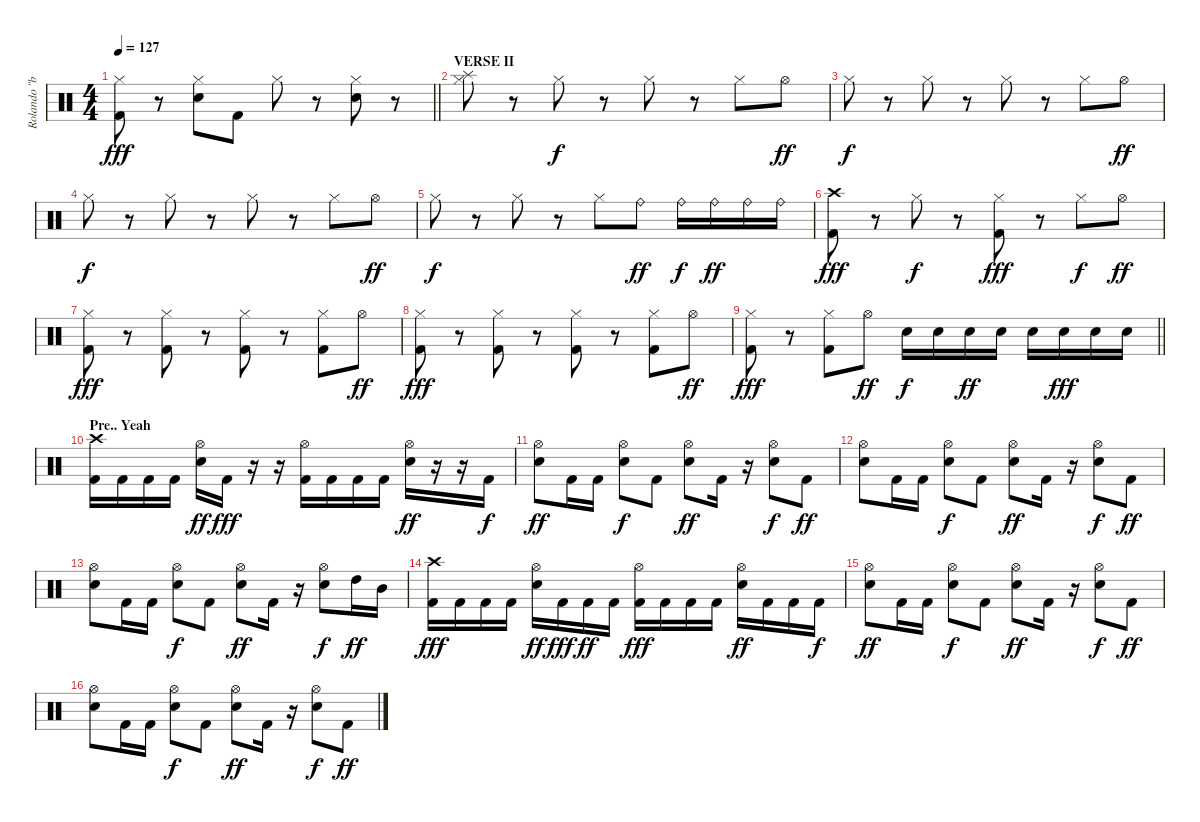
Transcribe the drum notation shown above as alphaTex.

\track ("Rolando \"bataka\"" "Rolando \"b") {instrument percussion}
\staff {score}
\articulation defaults
\ts (4 4)
\tempo 127
\clef neutral
\barLineRight lightlight
\ks c
("Kick (hit) 2" "Hi-Hat (closed)").8{dy fff} r.8 ("Electric Snare (hit)" "Hi-Hat (closed)").8 "Kick (hit) 2".8 "Hi-Hat (closed)".8 r.8 ("Electric Snare (hit)" "Hi-Hat (closed)").8 r.8 |
\section ("" "VERSE II")
("Splash (hit)" "Hi-Hat (closed)").8 r.8 "Hi-Hat (closed)".8{dy f} r.8 "Hi-Hat (closed)".8 r.8 "Hi-Hat (closed)".8 "Hi-Hat (open)".8{dy ff} |
"Hi-Hat (closed)".8{dy f} r.8 "Hi-Hat (closed)".8 r.8 "Hi-Hat (closed)".8 r.8 "Hi-Hat (closed)".8 "Hi-Hat (open)".8{dy ff} |
"Hi-Hat (closed)".8{dy f} r.8 "Hi-Hat (closed)".8 r.8 "Hi-Hat (closed)".8 r.8 "Hi-Hat (closed)".8 "Hi-Hat (open)".8{dy ff} |
"Hi-Hat (closed)".8{dy f} r.8 "Hi-Hat (closed)".8 r.8 "Hi-Hat (closed)".8 "Ride (bell)".8{dy ff} "Ride (bell)".16{dy f} "Ride (bell)".16{dy ff} "Ride (bell)".16 "Ride (bell)".16 |
("Kick (hit) 2" "Crash high (hit)").8{dy fff} r.8 "Hi-Hat (closed)".8{dy f} r.8 ("Kick (hit) 2" "Hi-Hat (closed)").8{dy fff} r.8 "Hi-Hat (closed)".8{dy f} "Hi-Hat (open)".8{dy ff} |
("Kick (hit) 2" "Hi-Hat (closed)").8{dy fff} r.8 ("Kick (hit) 2" "Hi-Hat (closed)").8 r.8 ("Kick (hit) 2" "Hi-Hat (closed)").8 r.8 ("Kick (hit) 2" "Hi-Hat (closed)").8 "Hi-Hat (open)".8{dy ff} |
("Kick (hit) 2" "Hi-Hat (closed)").8{dy fff} r.8 ("Kick (hit) 2" "Hi-Hat (closed)").8 r.8 ("Kick (hit) 2" "Hi-Hat (closed)").8 r.8 ("Kick (hit) 2" "Hi-Hat (closed)").8 "Hi-Hat (open)".8{dy ff} |
\barLineRight lightlight
("Kick (hit) 2" "Hi-Hat (closed)").8{dy fff} r.8 ("Kick (hit) 2" "Hi-Hat (closed)").8 "Hi-Hat (open)".8{dy ff} "Electric Snare (hit)".16{dy f} "Electric Snare (hit)".16 "Electric Snare (hit)".16{dy ff} "Electric Snare (hit)".16 "Electric Snare (hit)".16 "Electric Snare (hit)".16{dy fff} "Electric Snare (hit)".16 "Electric Snare (hit)".16 |
\section ("" "Pre.. Yeah")
("Kick (hit) 2" "Crash high (hit)").16 "Kick (hit) 2".16 "Kick (hit) 2".16 "Kick (hit) 2".16 ("Electric Snare (hit)" "Hi-Hat (open)").16{dy ff} "Kick (hit) 2".16{dy fff} r.16 r.16 ("Kick (hit) 2" "Hi-Hat (open)").16 "Kick (hit) 2".16 "Kick (hit) 2".16 "Kick (hit) 2".16 ("Electric Snare (hit)" "Hi-Hat (open)").16{dy ff} r.16 r.16 "Kick (hit) 2".16{dy f} |
("Electric Snare (hit)" "Hi-Hat (open)").8{dy ff} "Kick (hit) 2".16 "Kick (hit) 2".16 ("Electric Snare (hit)" "Hi-Hat (open)").8{dy f} "Kick (hit) 2".8 ("Electric Snare (hit)" "Hi-Hat (open)").8{dy ff} "Kick (hit) 2".16 r.16 ("Electric Snare (hit)" "Hi-Hat (open)").8{dy f} "Kick (hit) 2".8{dy ff} |
("Electric Snare (hit)" "Hi-Hat (open)").8 "Kick (hit) 2".16 "Kick (hit) 2".16 ("Electric Snare (hit)" "Hi-Hat (open)").8{dy f} "Kick (hit) 2".8 ("Electric Snare (hit)" "Hi-Hat (open)").8{dy ff} "Kick (hit) 2".16 r.16 ("Electric Snare (hit)" "Hi-Hat (open)").8{dy f} "Kick (hit) 2".8{dy ff} |
("Electric Snare (hit)" "Hi-Hat (open)").8 "Kick (hit) 2".16 "Kick (hit) 2".16 ("Electric Snare (hit)" "Hi-Hat (open)").8{dy f} "Kick (hit) 2".8 ("Electric Snare (hit)" "Hi-Hat (open)").8{dy ff} "Kick (hit) 2".16 r.16 ("Electric Snare (hit)" "Hi-Hat (open)").8{dy f} "High Tom (hit)".16{dy ff} "Mid Tom (hit)".16 |
("Kick (hit) 2" "Crash high (hit)").16{dy fff} "Kick (hit) 2".16 "Kick (hit) 2".16 "Kick (hit) 2".16 ("Electric Snare (hit)" "Hi-Hat (open)").16{dy ff} "Kick (hit) 2".16{dy fff} "Kick (hit) 2".16{dy ff} "Kick (hit) 2".16 ("Kick (hit) 2" "Hi-Hat (open)").16{dy fff} "Kick (hit) 2".16 "Kick (hit) 2".16 "Kick (hit) 2".16 ("Electric Snare (hit)" "Hi-Hat (open)").16{dy ff} "Kick (hit) 2".16 "Kick (hit) 2".16 "Kick (hit) 2".16{dy f} |
("Electric Snare (hit)" "Hi-Hat (open)").8{dy ff} "Kick (hit) 2".16 "Kick (hit) 2".16 ("Electric Snare (hit)" "Hi-Hat (open)").8{dy f} "Kick (hit) 2".8 ("Electric Snare (hit)" "Hi-Hat (open)").8{dy ff} "Kick (hit) 2".16 r.16 ("Electric Snare (hit)" "Hi-Hat (open)").8{dy f} "Kick (hit) 2".8{dy ff} |
("Electric Snare (hit)" "Hi-Hat (open)").8 "Kick (hit) 2".16 "Kick (hit) 2".16 ("Electric Snare (hit)" "Hi-Hat (open)").8{dy f} "Kick (hit) 2".8 ("Electric Snare (hit)" "Hi-Hat (open)").8{dy ff} "Kick (hit) 2".16 r.16 ("Electric Snare (hit)" "Hi-Hat (open)").8{dy f} "Kick (hit) 2".8{dy ff}
